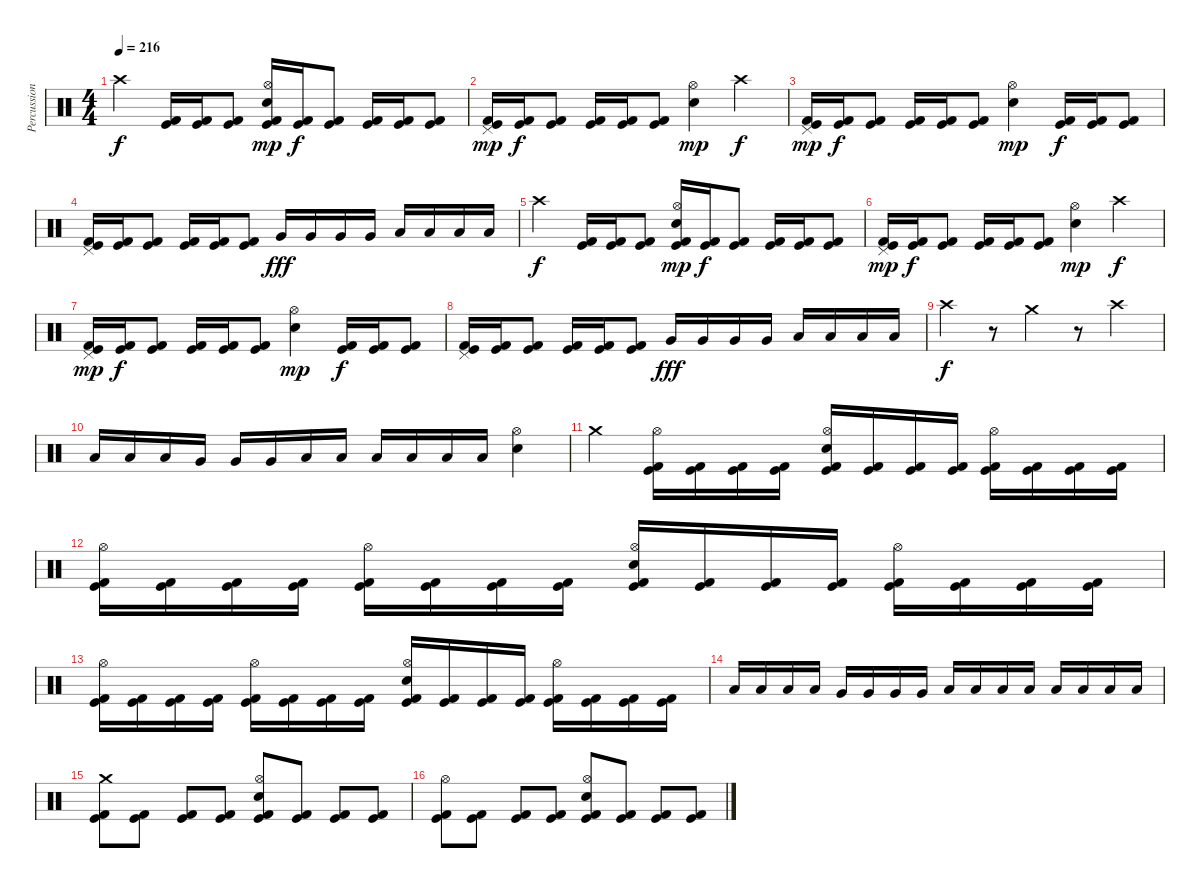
\track ("Percussions" "Percussion") {instrument percussion}
\staff {score}
\articulation defaults
\ts (4 4)
\tempo 216
\clef neutral
\ks c "Crash high (hit)".4{dy f}
("Kick (hit)" "Kick (hit) 2").16 ("Kick (hit)" "Kick (hit) 2").16 ("Kick (hit)" "Kick (hit) 2").8 ("Hi-Hat (open)" "Electric Snare (hit)" "Kick (hit)" "Kick (hit) 2").16{dy mp} ("Kick (hit)" "Kick (hit) 2").16{dy f} ("Kick (hit)" "Kick (hit) 2").8 ("Kick (hit)" "Kick (hit) 2").16 ("Kick (hit)" "Kick (hit) 2").16 ("Kick (hit)" "Kick (hit) 2").8 |
("Pedal Hi-Hat (hit)" "Kick (hit)" "Kick (hit) 2").16{dy mp} ("Kick (hit)" "Kick (hit) 2").16{dy f} ("Kick (hit)" "Kick (hit) 2").8 ("Kick (hit)" "Kick (hit) 2").16 ("Kick (hit)" "Kick (hit) 2").16 ("Kick (hit)" "Kick (hit) 2").8 ("Hi-Hat (open)" "Electric Snare (hit)").4{dy mp} "Crash high (hit)".4{dy f} |
("Pedal Hi-Hat (hit)" "Kick (hit)" "Kick (hit) 2").16{dy mp} ("Kick (hit)" "Kick (hit) 2").16{dy f} ("Kick (hit)" "Kick (hit) 2").8 ("Kick (hit)" "Kick (hit) 2").16 ("Kick (hit)" "Kick (hit) 2").16 ("Kick (hit)" "Kick (hit) 2").8 ("Hi-Hat (open)" "Electric Snare (hit)").4{dy mp} ("Kick (hit)" "Kick (hit) 2").16{dy f} ("Kick (hit)" "Kick (hit) 2").16 ("Kick (hit)" "Kick (hit) 2").8 |
("Pedal Hi-Hat (hit)" "Kick (hit)" "Kick (hit) 2").16 ("Kick (hit)" "Kick (hit) 2").16 ("Kick (hit)" "Kick (hit) 2").8 ("Kick (hit)" "Kick (hit) 2").16 ("Kick (hit)" "Kick (hit) 2").16 ("Kick (hit)" "Kick (hit) 2").8 "Very Low Tom (hit)".16{dy fff} "Very Low Tom (hit)".16 "Very Low Tom (hit)".16 "Very Low Tom (hit)".16 "Low Floor Tom (hit)".16 "Low Floor Tom (hit)".16 "Low Floor Tom (hit)".16 "Low Floor Tom (hit)".16 |
"Crash high (hit)".4{dy f} ("Kick (hit)" "Kick (hit) 2").16 ("Kick (hit)" "Kick (hit) 2").16 ("Kick (hit)" "Kick (hit) 2").8 ("Hi-Hat (open)" "Electric Snare (hit)" "Kick (hit)" "Kick (hit) 2").16{dy mp} ("Kick (hit)" "Kick (hit) 2").16{dy f} ("Kick (hit)" "Kick (hit) 2").8 ("Kick (hit)" "Kick (hit) 2").16 ("Kick (hit)" "Kick (hit) 2").16 ("Kick (hit)" "Kick (hit) 2").8 |
("Pedal Hi-Hat (hit)" "Kick (hit)" "Kick (hit) 2").16{dy mp} ("Kick (hit)" "Kick (hit) 2").16{dy f} ("Kick (hit)" "Kick (hit) 2").8 ("Kick (hit)" "Kick (hit) 2").16 ("Kick (hit)" "Kick (hit) 2").16 ("Kick (hit)" "Kick (hit) 2").8 ("Hi-Hat (open)" "Electric Snare (hit)").4{dy mp} "Crash high (hit)".4{dy f} |
("Pedal Hi-Hat (hit)" "Kick (hit)" "Kick (hit) 2").16{dy mp} ("Kick (hit)" "Kick (hit) 2").16{dy f} ("Kick (hit)" "Kick (hit) 2").8 ("Kick (hit)" "Kick (hit) 2").16 ("Kick (hit)" "Kick (hit) 2").16 ("Kick (hit)" "Kick (hit) 2").8 ("Hi-Hat (open)" "Electric Snare (hit)").4{dy mp} ("Kick (hit)" "Kick (hit) 2").16{dy f} ("Kick (hit)" "Kick (hit) 2").16 ("Kick (hit)" "Kick (hit) 2").8 |
("Pedal Hi-Hat (hit)" "Kick (hit)" "Kick (hit) 2").16 ("Kick (hit)" "Kick (hit) 2").16 ("Kick (hit)" "Kick (hit) 2").8 ("Kick (hit)" "Kick (hit) 2").16 ("Kick (hit)" "Kick (hit) 2").16 ("Kick (hit)" "Kick (hit) 2").8 "Very Low Tom (hit)".16{dy fff} "Very Low Tom (hit)".16 "Very Low Tom (hit)".16 "Very Low Tom (hit)".16 "Low Floor Tom (hit)".16 "Low Floor Tom (hit)".16 "Low Floor Tom (hit)".16 "Low Floor Tom (hit)".16 |
"Crash high (hit)".4{dy f} r.8 "Crash medium (hit)".4 r.8 "Crash high (hit)".4 |
"Low Tom (hit)".16 "Low Tom (hit)".16 "Low Tom (hit)".16 "Very Low Tom (hit)".16 "Very Low Tom (hit)".16 "Very Low Tom (hit)".16 "Low Tom (hit)".16 "Low Tom (hit)".16 "Low Tom (hit)".16 "Low Floor Tom (hit)".16 "Low Floor Tom (hit)".16 "Low Floor Tom (hit)".16 ("Hi-Hat (open)" "Electric Snare (hit)").4 |
"Crash medium (hit)".4 ("Hi-Hat (open)" "Kick (hit)" "Kick (hit) 2").16 ("Kick (hit)" "Kick (hit) 2").16 ("Kick (hit)" "Kick (hit) 2").16 ("Kick (hit)" "Kick (hit) 2").16 ("Hi-Hat (open)" "Electric Snare (hit)" "Kick (hit)" "Kick (hit) 2").16 ("Kick (hit)" "Kick (hit) 2").16 ("Kick (hit)" "Kick (hit) 2").16 ("Kick (hit)" "Kick (hit) 2").16 ("Hi-Hat (open)" "Kick (hit)" "Kick (hit) 2").16 ("Kick (hit)" "Kick (hit) 2").16 ("Kick (hit)" "Kick (hit) 2").16 ("Kick (hit)" "Kick (hit) 2").16 |
("Hi-Hat (open)" "Kick (hit)" "Kick (hit) 2").16 ("Kick (hit)" "Kick (hit) 2").16 ("Kick (hit)" "Kick (hit) 2").16 ("Kick (hit)" "Kick (hit) 2").16 ("Hi-Hat (open)" "Kick (hit)" "Kick (hit) 2").16 ("Kick (hit)" "Kick (hit) 2").16 ("Kick (hit)" "Kick (hit) 2").16 ("Kick (hit)" "Kick (hit) 2").16 ("Hi-Hat (open)" "Electric Snare (hit)" "Kick (hit)" "Kick (hit) 2").16 ("Kick (hit)" "Kick (hit) 2").16 ("Kick (hit)" "Kick (hit) 2").16 ("Kick (hit)" "Kick (hit) 2").16 ("Hi-Hat (open)" "Kick (hit)" "Kick (hit) 2").16 ("Kick (hit)" "Kick (hit) 2").16 ("Kick (hit)" "Kick (hit) 2").16 ("Kick (hit)" "Kick (hit) 2").16 |
("Hi-Hat (open)" "Kick (hit)" "Kick (hit) 2").16 ("Kick (hit)" "Kick (hit) 2").16 ("Kick (hit)" "Kick (hit) 2").16 ("Kick (hit)" "Kick (hit) 2").16 ("Hi-Hat (open)" "Kick (hit)" "Kick (hit) 2").16 ("Kick (hit)" "Kick (hit) 2").16 ("Kick (hit)" "Kick (hit) 2").16 ("Kick (hit)" "Kick (hit) 2").16 ("Hi-Hat (open)" "Electric Snare (hit)" "Kick (hit)" "Kick (hit) 2").16 ("Kick (hit)" "Kick (hit) 2").16 ("Kick (hit)" "Kick (hit) 2").16 ("Kick (hit)" "Kick (hit) 2").16 ("Hi-Hat (open)" "Kick (hit)" "Kick (hit) 2").16 ("Kick (hit)" "Kick (hit) 2").16 ("Kick (hit)" "Kick (hit) 2").16 ("Kick (hit)" "Kick (hit) 2").16 |
"Low Tom (hit)".16 "Low Tom (hit)".16 "Low Tom (hit)".16 "Low Tom (hit)".16 "Very Low Tom (hit)".16 "Very Low Tom (hit)".16 "Very Low Tom (hit)".16 "Very Low Tom (hit)".16 "Low Tom (hit)".16 "Low Tom (hit)".16 "Low Tom (hit)".16 "Low Tom (hit)".16 "Low Floor Tom (hit)".16 "Low Floor Tom (hit)".16 "Low Floor Tom (hit)".16 "Low Floor Tom (hit)".16 |
("Crash medium (hit)" "Kick (hit)" "Kick (hit) 2").8 ("Kick (hit)" "Kick (hit) 2").8 ("Kick (hit)" "Kick (hit) 2").8 ("Kick (hit)" "Kick (hit) 2").8 ("Hi-Hat (open)" "Electric Snare (hit)" "Kick (hit)" "Kick (hit) 2").8 ("Kick (hit)" "Kick (hit) 2").8 ("Kick (hit)" "Kick (hit) 2").8 ("Kick (hit)" "Kick (hit) 2").8 |
("Hi-Hat (open)" "Kick (hit)" "Kick (hit) 2").8 ("Kick (hit)" "Kick (hit) 2").8 ("Kick (hit)" "Kick (hit) 2").8 ("Kick (hit)" "Kick (hit) 2").8 ("Hi-Hat (open)" "Electric Snare (hit)" "Kick (hit)" "Kick (hit) 2").8 ("Kick (hit)" "Kick (hit) 2").8 ("Kick (hit)" "Kick (hit) 2").8 ("Kick (hit)" "Kick (hit) 2").8
